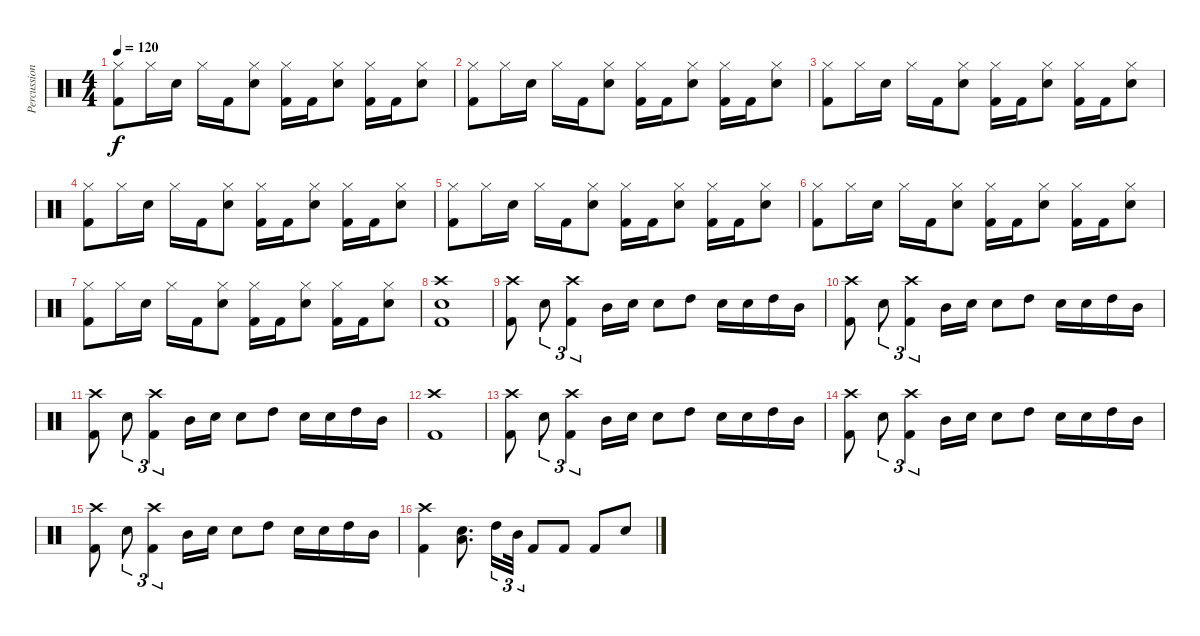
\track ("Percussion" "Percussion") {instrument percussion}
\staff {score}
\articulation defaults
\ts (4 4)
\tempo 120
\clef neutral
\ks c
("Hi-Hat (closed)" "Kick (hit) 2").8{dy f} "Hi-Hat (closed)".16 "Snare (hit) 2".16 "Hi-Hat (closed)".16 "Kick (hit) 2".16 ("Hi-Hat (closed)" "Snare (hit) 2").8 ("Hi-Hat (closed)" "Kick (hit) 2").16 "Kick (hit) 2".16 ("Hi-Hat (closed)" "Snare (hit) 2").8 ("Hi-Hat (closed)" "Kick (hit) 2").16 "Kick (hit) 2".16 ("Hi-Hat (closed)" "Snare (hit) 2").8 |
("Hi-Hat (closed)" "Kick (hit) 2").8 "Hi-Hat (closed)".16 "Snare (hit) 2".16 "Hi-Hat (closed)".16 "Kick (hit) 2".16 ("Hi-Hat (closed)" "Snare (hit) 2").8 ("Hi-Hat (closed)" "Kick (hit) 2").16 "Kick (hit) 2".16 ("Hi-Hat (closed)" "Snare (hit) 2").8 ("Hi-Hat (closed)" "Kick (hit) 2").16 "Kick (hit) 2".16 ("Hi-Hat (closed)" "Snare (hit) 2").8 |
("Hi-Hat (closed)" "Kick (hit) 2").8 "Hi-Hat (closed)".16 "Snare (hit) 2".16 "Hi-Hat (closed)".16 "Kick (hit) 2".16 ("Hi-Hat (closed)" "Snare (hit) 2").8 ("Hi-Hat (closed)" "Kick (hit) 2").16 "Kick (hit) 2".16 ("Hi-Hat (closed)" "Snare (hit) 2").8 ("Hi-Hat (closed)" "Kick (hit) 2").16 "Kick (hit) 2".16 ("Hi-Hat (closed)" "Snare (hit) 2").8 |
("Hi-Hat (closed)" "Kick (hit) 2").8 "Hi-Hat (closed)".16 "Snare (hit) 2".16 "Hi-Hat (closed)".16 "Kick (hit) 2".16 ("Hi-Hat (closed)" "Snare (hit) 2").8 ("Hi-Hat (closed)" "Kick (hit) 2").16 "Kick (hit) 2".16 ("Hi-Hat (closed)" "Snare (hit) 2").8 ("Hi-Hat (closed)" "Kick (hit) 2").16 "Kick (hit) 2".16 ("Hi-Hat (closed)" "Snare (hit) 2").8 |
("Hi-Hat (closed)" "Kick (hit) 2").8 "Hi-Hat (closed)".16 "Snare (hit) 2".16 "Hi-Hat (closed)".16 "Kick (hit) 2".16 ("Hi-Hat (closed)" "Snare (hit) 2").8 ("Hi-Hat (closed)" "Kick (hit) 2").16 "Kick (hit) 2".16 ("Hi-Hat (closed)" "Snare (hit) 2").8 ("Hi-Hat (closed)" "Kick (hit) 2").16 "Kick (hit) 2".16 ("Hi-Hat (closed)" "Snare (hit) 2").8 |
("Hi-Hat (closed)" "Kick (hit) 2").8 "Hi-Hat (closed)".16 "Snare (hit) 2".16 "Hi-Hat (closed)".16 "Kick (hit) 2".16 ("Hi-Hat (closed)" "Snare (hit) 2").8 ("Hi-Hat (closed)" "Kick (hit) 2").16 "Kick (hit) 2".16 ("Hi-Hat (closed)" "Snare (hit) 2").8 ("Hi-Hat (closed)" "Kick (hit) 2").16 "Kick (hit) 2".16 ("Hi-Hat (closed)" "Snare (hit) 2").8 |
("Hi-Hat (closed)" "Kick (hit) 2").8 "Hi-Hat (closed)".16 "Snare (hit) 2".16 "Hi-Hat (closed)".16 "Kick (hit) 2".16 ("Hi-Hat (closed)" "Snare (hit) 2").8 ("Hi-Hat (closed)" "Kick (hit) 2").16 "Kick (hit) 2".16 ("Hi-Hat (closed)" "Snare (hit) 2").8 ("Hi-Hat (closed)" "Kick (hit) 2").16 "Kick (hit) 2".16 ("Hi-Hat (closed)" "Snare (hit) 2").8 |
("Crash high (hit)" "Snare (hit) 2" "Kick (hit) 2").1 |
("Crash high (hit)" "Kick (hit) 2").8 "Snare (hit) 2".8{tu (3 2)} ("Crash high (hit)" "Kick (hit) 2").4{tu (3 2)} "Mid Tom (hit)".16 "Snare (hit) 2".16 "Snare (hit) 2".8 "High Tom (hit)".8 "Snare (hit) 2".16 "Snare (hit) 2".16 "High Tom (hit)".16 "Mid Tom (hit)".16 |
("Crash high (hit)" "Kick (hit) 2").8 "Snare (hit) 2".8{tu (3 2)} ("Crash high (hit)" "Kick (hit) 2").4{tu (3 2)} "Mid Tom (hit)".16 "Snare (hit) 2".16 "Snare (hit) 2".8 "High Tom (hit)".8 "Snare (hit) 2".16 "Snare (hit) 2".16 "High Tom (hit)".16 "Mid Tom (hit)".16 |
("Crash high (hit)" "Kick (hit) 2").8 "Snare (hit) 2".8{tu (3 2)} ("Crash high (hit)" "Kick (hit) 2").4{tu (3 2)} "Mid Tom (hit)".16 "Snare (hit) 2".16 "Snare (hit) 2".8 "High Tom (hit)".8 "Snare (hit) 2".16 "Snare (hit) 2".16 "High Tom (hit)".16 "Mid Tom (hit)".16 |
("Crash high (hit)" "Kick (hit) 2").1 |
("Crash high (hit)" "Kick (hit) 2").8 "Snare (hit) 2".8{tu (3 2)} ("Crash high (hit)" "Kick (hit) 2").4{tu (3 2)} "Mid Tom (hit)".16 "Snare (hit) 2".16 "Snare (hit) 2".8 "High Tom (hit)".8 "Snare (hit) 2".16 "Snare (hit) 2".16 "High Tom (hit)".16 "Mid Tom (hit)".16 |
("Crash high (hit)" "Kick (hit) 2").8 "Snare (hit) 2".8{tu (3 2)} ("Crash high (hit)" "Kick (hit) 2").4{tu (3 2)} "Mid Tom (hit)".16 "Snare (hit) 2".16 "Snare (hit) 2".8 "High Tom (hit)".8 "Snare (hit) 2".16 "Snare (hit) 2".16 "High Tom (hit)".16 "Mid Tom (hit)".16 |
("Crash high (hit)" "Kick (hit) 2").8 "Snare (hit) 2".8{tu (3 2)} ("Crash high (hit)" "Kick (hit) 2").4{tu (3 2)} "Mid Tom (hit)".16 "Snare (hit) 2".16 "Snare (hit) 2".8 "High Tom (hit)".8 "Snare (hit) 2".16 "Snare (hit) 2".16 "High Tom (hit)".16 "Mid Tom (hit)".16 |
("Crash high (hit)" "Kick (hit) 2").4 ("Low Floor Tom (hit)" "Snare (hit) 2").8{d} "High Tom (hit)".16{tu (3 2)} "Mid Tom (hit)".32{tu (3 2)} "Kick (hit) 2".8 "Kick (hit) 2".8 "Kick (hit) 2".8 "Snare (hit) 2".8
